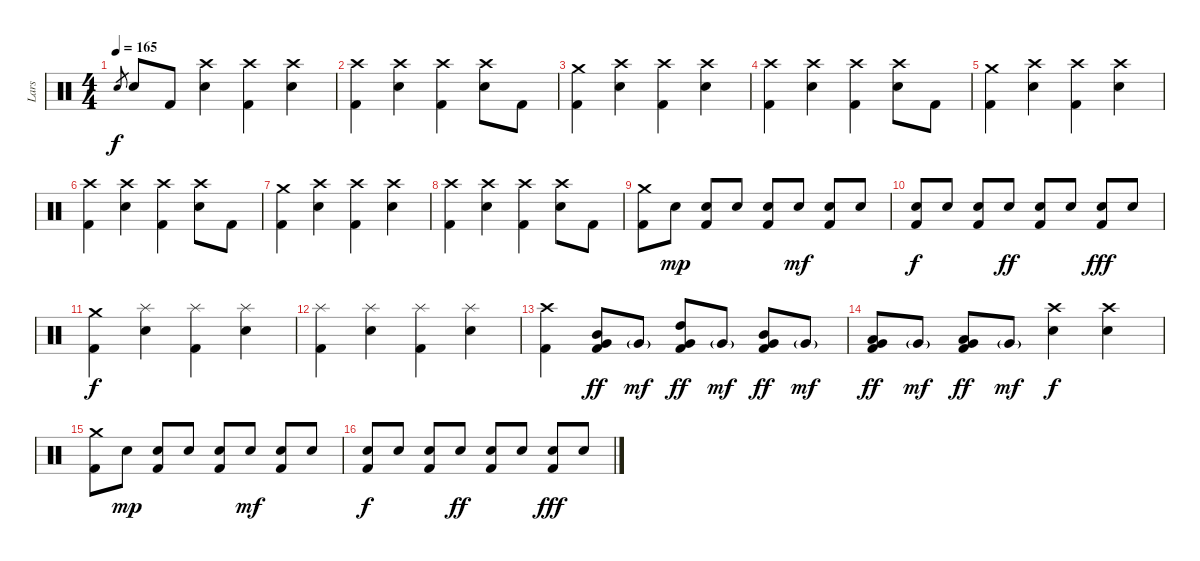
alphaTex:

\track ("Lars" "Lars") {instrument percussion}
\staff {score}
\articulation defaults
\ts (4 4)
\tempo 165
\clef neutral
\ks c "Snare (hit) 2".8{gr dy f} "Snare (hit) 2".8 "Kick (hit) 2".8
("Crash high (hit)" "Snare (hit) 2").4 ("Crash high (hit)" "Kick (hit) 2").4 ("Crash high (hit)" "Snare (hit) 2").4 |
("Crash high (hit)" "Kick (hit) 2").4 ("Crash high (hit)" "Snare (hit) 2").4 ("Crash high (hit)" "Kick (hit) 2").4 ("Crash high (hit)" "Snare (hit) 2").8 "Kick (hit) 2".8 |
("Crash medium (hit)" "Kick (hit) 2").4 ("Crash high (hit)" "Snare (hit) 2").4 ("Crash high (hit)" "Kick (hit) 2").4 ("Crash high (hit)" "Snare (hit) 2").4 |
("Crash high (hit)" "Kick (hit) 2").4 ("Crash high (hit)" "Snare (hit) 2").4 ("Crash high (hit)" "Kick (hit) 2").4 ("Crash high (hit)" "Snare (hit) 2").8 "Kick (hit) 2".8 |
("Crash medium (hit)" "Kick (hit) 2").4 ("Crash high (hit)" "Snare (hit) 2").4 ("Crash high (hit)" "Kick (hit) 2").4 ("Crash high (hit)" "Snare (hit) 2").4 |
("Crash high (hit)" "Kick (hit) 2").4 ("Crash high (hit)" "Snare (hit) 2").4 ("Crash high (hit)" "Kick (hit) 2").4 ("Crash high (hit)" "Snare (hit) 2").8 "Kick (hit) 2".8 |
("Crash medium (hit)" "Kick (hit) 2").4 ("Crash high (hit)" "Snare (hit) 2").4 ("Crash high (hit)" "Kick (hit) 2").4 ("Crash high (hit)" "Snare (hit) 2").4 |
("Crash high (hit)" "Kick (hit) 2").4 ("Crash high (hit)" "Snare (hit) 2").4 ("Crash high (hit)" "Kick (hit) 2").4 ("Crash high (hit)" "Snare (hit) 2").8 "Kick (hit) 2".8 |
("Crash medium (hit)" "Kick (hit) 2").8 "Snare (hit) 2".8{dy mp} ("Snare (hit) 2" "Kick (hit) 2").8 "Snare (hit) 2".8 ("Snare (hit) 2" "Kick (hit) 2").8 "Snare (hit) 2".8{dy mf} ("Snare (hit) 2" "Kick (hit) 2").8 "Snare (hit) 2".8 |
("Snare (hit) 2" "Kick (hit) 2").8{dy f} "Snare (hit) 2".8 ("Snare (hit) 2" "Kick (hit) 2").8 "Snare (hit) 2".8{dy ff} ("Snare (hit) 2" "Kick (hit) 2").8 "Snare (hit) 2".8 ("Snare (hit) 2" "Kick (hit) 2").8{dy fff} "Snare (hit) 2".8 |
("Crash medium (hit)" "Kick (hit) 2").4{dy f} ("Splash (hit)" "Snare (hit) 2").4 ("Splash (hit)" "Kick (hit) 2").4 ("Splash (hit)" "Snare (hit) 2").4 |
("Splash (hit)" "Kick (hit) 2").4 ("Splash (hit)" "Snare (hit) 2").4 ("Splash (hit)" "Kick (hit) 2").4 ("Splash (hit)" "Snare (hit) 2").4 |
("Crash high (hit)" "Kick (hit) 2").4 ("Mid Tom (hit)" "Very Low Tom (hit)" "Kick (hit) 2").8{dy ff} "Very Low Tom (hit)"{g}.8{dy mf} ("High Tom (hit)" "Very Low Tom (hit)" "Kick (hit) 2").8{dy ff} "Very Low Tom (hit)"{g}.8{dy mf} ("Mid Tom (hit)" "Very Low Tom (hit)" "Kick (hit) 2").8{dy ff} "Very Low Tom (hit)"{g}.8{dy mf} |
("Low Tom (hit)" "Very Low Tom (hit)" "Kick (hit) 2").8{dy ff} "Very Low Tom (hit)"{g}.8{dy mf} ("Low Tom (hit)" "Very Low Tom (hit)" "Kick (hit) 2").8{dy ff} "Very Low Tom (hit)"{g}.8{dy mf} ("Crash high (hit)" "Snare (hit) 2").4{dy f} ("Crash high (hit)" "Snare (hit) 2").4 |
("Crash medium (hit)" "Kick (hit) 2").8 "Snare (hit) 2".8{dy mp} ("Snare (hit) 2" "Kick (hit) 2").8 "Snare (hit) 2".8 ("Snare (hit) 2" "Kick (hit) 2").8 "Snare (hit) 2".8{dy mf} ("Snare (hit) 2" "Kick (hit) 2").8 "Snare (hit) 2".8 |
("Snare (hit) 2" "Kick (hit) 2").8{dy f} "Snare (hit) 2".8 ("Snare (hit) 2" "Kick (hit) 2").8 "Snare (hit) 2".8{dy ff} ("Snare (hit) 2" "Kick (hit) 2").8 "Snare (hit) 2".8 ("Snare (hit) 2" "Kick (hit) 2").8{dy fff} "Snare (hit) 2".8
